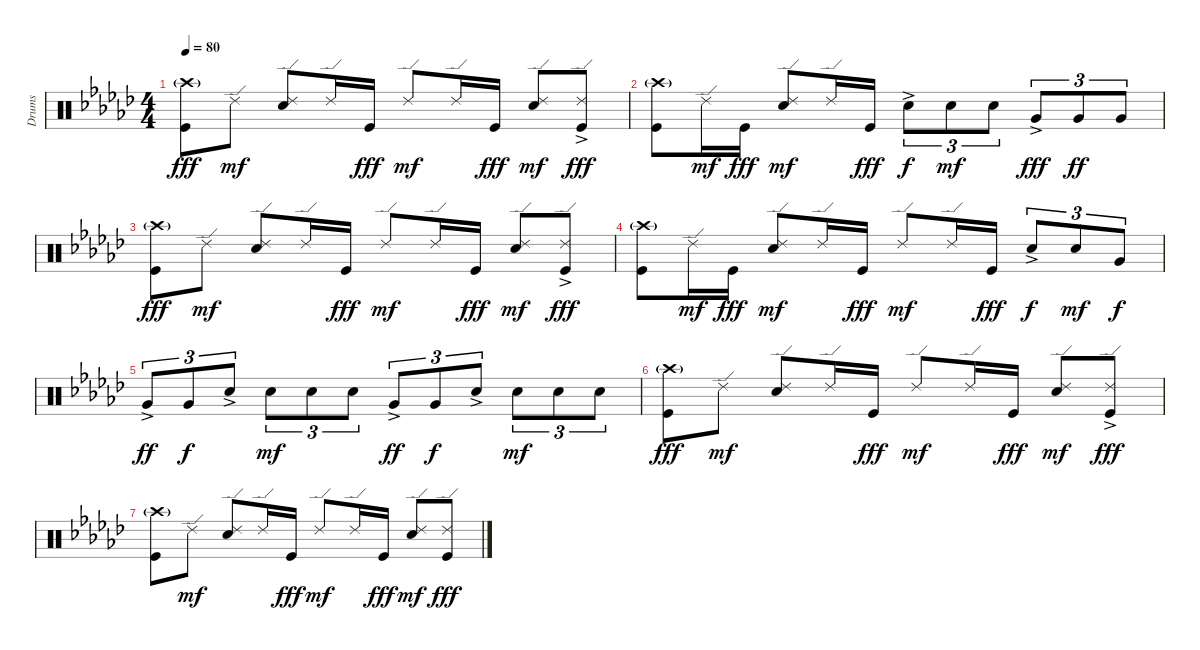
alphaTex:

\track ("Drums" "Drums") {instrument percussion}
\staff {score}
\articulation defaults
\ts (4 4)
\tempo 80
\clef neutral
\ks gb
("Crash high (hit)"{g} "Kick (hit)").8{dy fff} "Ride (edge) 2".8{dy mf} ("Ride (edge) 2" "Electric Snare (hit)").8 "Ride (edge) 2".16 "Kick (hit)".16{dy fff} "Ride (edge) 2".8{dy mf} "Ride (edge) 2".16 "Kick (hit)".16{dy fff} ("Ride (edge) 2" "Electric Snare (hit)").8{dy mf} ("Ride (edge) 2"{ac} "Kick (hit)").8{dy fff} |
("Crash high (hit)"{g} "Kick (hit)").8 "Ride (edge) 2".16{dy mf} "Kick (hit)".16{dy fff} ("Ride (edge) 2" "Electric Snare (hit)").8{dy mf} "Ride (edge) 2".16 "Kick (hit)".16{dy fff} "Electric Snare (hit)"{ac}.8{tu (3 2) dy f} "Electric Snare (hit)".8{tu (3 2) dy mf} "Electric Snare (hit)".8{tu (3 2)} "Very Low Tom (hit)"{ac}.8{tu (3 2) dy fff} "Very Low Tom (hit)".8{tu (3 2) dy ff} "Very Low Tom (hit)".8{tu (3 2)} |
("Crash high (hit)"{g} "Kick (hit)").8{dy fff} "Ride (edge) 2".8{dy mf} ("Ride (edge) 2" "Electric Snare (hit)").8 "Ride (edge) 2".16 "Kick (hit)".16{dy fff} "Ride (edge) 2".8{dy mf} "Ride (edge) 2".16 "Kick (hit)".16{dy fff} ("Ride (edge) 2" "Electric Snare (hit)").8{dy mf} ("Ride (edge) 2"{ac} "Kick (hit)").8{dy fff} |
("Crash high (hit)"{g} "Kick (hit)").8 "Ride (edge) 2".16{dy mf} "Kick (hit)".16{dy fff} ("Ride (edge) 2" "Electric Snare (hit)").8{dy mf} "Ride (edge) 2".16 "Kick (hit)".16{dy fff} "Ride (edge) 2".8{dy mf} "Ride (edge) 2".16 "Kick (hit)".16{dy fff} "Electric Snare (hit)"{ac}.8{tu (3 2) dy f} "Electric Snare (hit)".8{tu (3 2) dy mf} "Very Low Tom (hit)".8{tu (3 2) dy f} |
"Very Low Tom (hit)"{ac}.8{tu (3 2) dy ff} "Very Low Tom (hit)".8{tu (3 2) dy f} "Electric Snare (hit)"{ac}.8{tu (3 2)} "Electric Snare (hit)".8{tu (3 2) dy mf} "Electric Snare (hit)".8{tu (3 2)} "Electric Snare (hit)".8{tu (3 2)} "Very Low Tom (hit)"{ac}.8{tu (3 2) dy ff} "Very Low Tom (hit)".8{tu (3 2) dy f} "Electric Snare (hit)"{ac}.8{tu (3 2)} "Electric Snare (hit)".8{tu (3 2) dy mf} "Electric Snare (hit)".8{tu (3 2)} "Electric Snare (hit)".8{tu (3 2)} |
("Crash high (hit)"{g} "Kick (hit)").8{dy fff} "Ride (edge) 2".8{dy mf} ("Ride (edge) 2" "Electric Snare (hit)").8 "Ride (edge) 2".16 "Kick (hit)".16{dy fff} "Ride (edge) 2".8{dy mf} "Ride (edge) 2".16 "Kick (hit)".16{dy fff} ("Ride (edge) 2" "Electric Snare (hit)").8{dy mf} ("Ride (edge) 2"{ac} "Kick (hit)").8{dy fff} |
("Crash high (hit)"{g} "Kick (hit)").8 "Ride (edge) 2".8{dy mf} ("Ride (edge) 2" "Electric Snare (hit)").8 "Ride (edge) 2".16 "Kick (hit)".16{dy fff} "Ride (edge) 2".8{dy mf} "Ride (edge) 2".16 "Kick (hit)".16{dy fff} ("Ride (edge) 2" "Electric Snare (hit)").8{dy mf} ("Ride (edge) 2" "Kick (hit)").8{dy fff}
